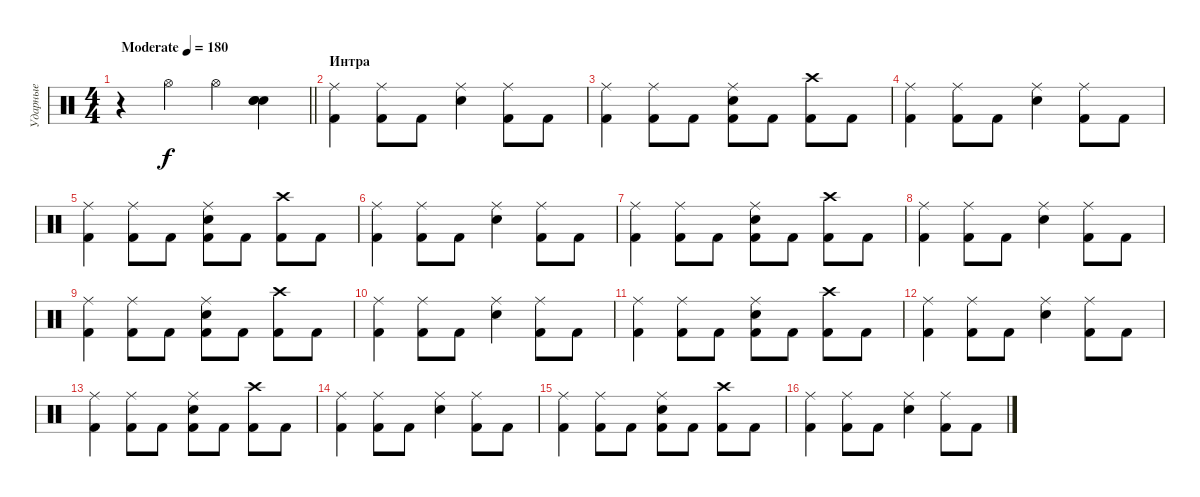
\track ("Ударные" "Ударные") {instrument percussion}
\staff {score}
\articulation defaults
\ts (4 4)
\tempo (180 "Moderate")
\clef neutral
\barLineRight lightlight
\ks c
r.4{dy f} "Hi-Hat (open)".4 "Hi-Hat (open)".4 ("Snare (hit) 2" "Snare (hit) 2" "Snare (hit) 2").4{bd 120} |
\section ("" "Интра")
("Kick (hit) 2" "Ride (middle)").4 ("Kick (hit) 2" "Ride (middle)").8 "Kick (hit) 2".8 ("Snare (hit) 2" "Ride (middle)").4 ("Kick (hit) 2" "Ride (middle)").8 "Kick (hit) 2".8 |
("Kick (hit) 2" "Ride (middle)").4 ("Kick (hit) 2" "Ride (middle)").8 "Kick (hit) 2".8 ("Kick (hit) 2" "Snare (hit) 2" "Ride (middle)").8 "Kick (hit) 2".8 ("Kick (hit) 2" "Crash high (hit)").8 "Kick (hit) 2".8 |
("Kick (hit) 2" "Ride (middle)").4 ("Kick (hit) 2" "Ride (middle)").8 "Kick (hit) 2".8 ("Snare (hit) 2" "Ride (middle)").4 ("Kick (hit) 2" "Ride (middle)").8 "Kick (hit) 2".8 |
("Kick (hit) 2" "Ride (middle)").4 ("Kick (hit) 2" "Ride (middle)").8 "Kick (hit) 2".8 ("Kick (hit) 2" "Snare (hit) 2" "Ride (middle)").8 "Kick (hit) 2".8 ("Kick (hit) 2" "Crash high (hit)").8 "Kick (hit) 2".8 |
("Kick (hit) 2" "Ride (middle)").4 ("Kick (hit) 2" "Ride (middle)").8 "Kick (hit) 2".8 ("Snare (hit) 2" "Ride (middle)").4 ("Kick (hit) 2" "Ride (middle)").8 "Kick (hit) 2".8 |
("Kick (hit) 2" "Ride (middle)").4 ("Kick (hit) 2" "Ride (middle)").8 "Kick (hit) 2".8 ("Kick (hit) 2" "Snare (hit) 2" "Ride (middle)").8 "Kick (hit) 2".8 ("Kick (hit) 2" "Crash high (hit)").8 "Kick (hit) 2".8 |
("Kick (hit) 2" "Ride (middle)").4 ("Kick (hit) 2" "Ride (middle)").8 "Kick (hit) 2".8 ("Snare (hit) 2" "Ride (middle)").4 ("Kick (hit) 2" "Ride (middle)").8 "Kick (hit) 2".8 |
("Kick (hit) 2" "Ride (middle)").4 ("Kick (hit) 2" "Ride (middle)").8 "Kick (hit) 2".8 ("Kick (hit) 2" "Snare (hit) 2" "Ride (middle)").8 "Kick (hit) 2".8 ("Kick (hit) 2" "Crash high (hit)").8 "Kick (hit) 2".8 |
("Kick (hit) 2" "Ride (middle)").4 ("Kick (hit) 2" "Ride (middle)").8 "Kick (hit) 2".8 ("Snare (hit) 2" "Ride (middle)").4 ("Kick (hit) 2" "Ride (middle)").8 "Kick (hit) 2".8 |
("Kick (hit) 2" "Ride (middle)").4 ("Kick (hit) 2" "Ride (middle)").8 "Kick (hit) 2".8 ("Kick (hit) 2" "Snare (hit) 2" "Ride (middle)").8 "Kick (hit) 2".8 ("Kick (hit) 2" "Crash high (hit)").8 "Kick (hit) 2".8 |
("Kick (hit) 2" "Ride (middle)").4 ("Kick (hit) 2" "Ride (middle)").8 "Kick (hit) 2".8 ("Snare (hit) 2" "Ride (middle)").4 ("Kick (hit) 2" "Ride (middle)").8 "Kick (hit) 2".8 |
("Kick (hit) 2" "Ride (middle)").4 ("Kick (hit) 2" "Ride (middle)").8 "Kick (hit) 2".8 ("Kick (hit) 2" "Snare (hit) 2" "Ride (middle)").8 "Kick (hit) 2".8 ("Kick (hit) 2" "Crash high (hit)").8 "Kick (hit) 2".8 |
("Kick (hit) 2" "Ride (middle)").4 ("Kick (hit) 2" "Ride (middle)").8 "Kick (hit) 2".8 ("Snare (hit) 2" "Ride (middle)").4 ("Kick (hit) 2" "Ride (middle)").8 "Kick (hit) 2".8 |
("Kick (hit) 2" "Ride (middle)").4 ("Kick (hit) 2" "Ride (middle)").8 "Kick (hit) 2".8 ("Kick (hit) 2" "Snare (hit) 2" "Ride (middle)").8 "Kick (hit) 2".8 ("Kick (hit) 2" "Crash high (hit)").8 "Kick (hit) 2".8 |
("Kick (hit) 2" "Ride (middle)").4 ("Kick (hit) 2" "Ride (middle)").8 "Kick (hit) 2".8 ("Snare (hit) 2" "Ride (middle)").4 ("Kick (hit) 2" "Ride (middle)").8 "Kick (hit) 2".8
